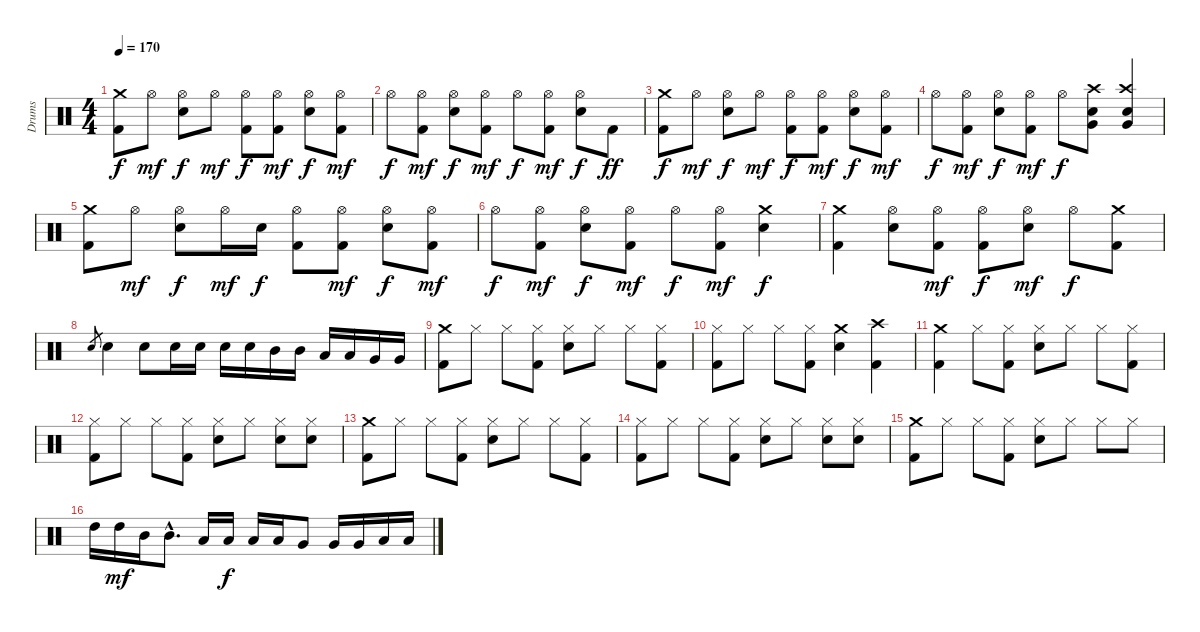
\track ("Drums" "Drums") {instrument percussion}
\staff {score}
\articulation defaults
\ts (4 4)
\tempo 170
\clef neutral
\ks c
("Crash medium (hit)" "Kick (hit) 2").8{dy f} "Hi-Hat (open)".8{dy mf} ("Hi-Hat (open)" "Electric Snare (hit)").8{dy f} "Hi-Hat (open)".8{dy mf} ("Hi-Hat (open)" "Kick (hit) 2").8{dy f} ("Hi-Hat (open)" "Kick (hit) 2").8{dy mf} ("Hi-Hat (open)" "Electric Snare (hit)").8{dy f} ("Hi-Hat (open)" "Kick (hit) 2").8{dy mf} |
"Hi-Hat (open)".8{dy f} ("Hi-Hat (open)" "Kick (hit) 2").8{dy mf} ("Hi-Hat (open)" "Electric Snare (hit)").8{dy f} ("Hi-Hat (open)" "Kick (hit) 2").8{dy mf} "Hi-Hat (open)".8{dy f} ("Hi-Hat (open)" "Kick (hit) 2").8{dy mf} ("Hi-Hat (open)" "Electric Snare (hit)").8{dy f} "Kick (hit) 2".8{dy ff} |
("Crash medium (hit)" "Kick (hit) 2").8{dy f} "Hi-Hat (open)".8{dy mf} ("Hi-Hat (open)" "Electric Snare (hit)").8{dy f} "Hi-Hat (open)".8{dy mf} ("Hi-Hat (open)" "Kick (hit) 2").8{dy f} ("Hi-Hat (open)" "Kick (hit) 2").8{dy mf} ("Hi-Hat (open)" "Electric Snare (hit)").8{dy f} ("Hi-Hat (open)" "Kick (hit) 2").8{dy mf} |
"Hi-Hat (open)".8{dy f} ("Hi-Hat (open)" "Kick (hit) 2").8{dy mf} ("Hi-Hat (open)" "Electric Snare (hit)").8{dy f} ("Hi-Hat (open)" "Kick (hit) 2").8{dy mf} "Hi-Hat (open)".8{dy f} ("Crash high (hit)" "Very Low Tom (hit)" "Electric Snare (hit)").8 ("Crash high (hit)" "Very Low Tom (hit)" "Electric Snare (hit)").4 |
("Crash medium (hit)" "Kick (hit) 2").8 "Hi-Hat (open)".8{dy mf} ("Hi-Hat (open)" "Electric Snare (hit)").8{dy f} "Hi-Hat (open)".16{dy mf} "Electric Snare (hit)".16{dy f} ("Hi-Hat (open)" "Kick (hit) 2").8 ("Hi-Hat (open)" "Kick (hit) 2").8{dy mf} ("Hi-Hat (open)" "Electric Snare (hit)").8{dy f} ("Hi-Hat (open)" "Kick (hit) 2").8{dy mf} |
"Hi-Hat (open)".8{dy f} ("Hi-Hat (open)" "Kick (hit) 2").8{dy mf} ("Hi-Hat (open)" "Electric Snare (hit)").8{dy f} ("Hi-Hat (open)" "Kick (hit) 2").8{dy mf} "Hi-Hat (open)".8{dy f} ("Hi-Hat (open)" "Kick (hit) 2").8{dy mf} ("Crash medium (hit)" "Electric Snare (hit)").4{dy f} |
("Crash medium (hit)" "Kick (hit) 2").4 ("Hi-Hat (open)" "Electric Snare (hit)").8 ("Hi-Hat (open)" "Kick (hit) 2").8{dy mf} ("Hi-Hat (open)" "Kick (hit) 2").8{dy f} ("Hi-Hat (open)" "Electric Snare (hit)").8{dy mf} "Hi-Hat (open)".8{dy f} ("Crash medium (hit)" "Kick (hit) 2").8 |
"Electric Snare (hit)".8{gr} "Electric Snare (hit)".4 "Electric Snare (hit)".8 "Electric Snare (hit)".16 "Electric Snare (hit)".16 "Electric Snare (hit)".16 "Electric Snare (hit)".16 "Mid Tom (hit)".16 "Mid Tom (hit)".16 "Low Tom (hit)".16 "Low Tom (hit)".16 "Very Low Tom (hit)".16 "Very Low Tom (hit)".16 |
("Crash medium (hit)" "Kick (hit) 2").8 "Hi-Hat (closed)".8 "Hi-Hat (closed)".8 ("Hi-Hat (closed)" "Kick (hit) 2").8 ("Hi-Hat (closed)" "Electric Snare (hit)").8 "Hi-Hat (closed)".8 "Hi-Hat (closed)".8 ("Hi-Hat (closed)" "Kick (hit) 2").8 |
("Hi-Hat (closed)" "Kick (hit) 2").8 "Hi-Hat (closed)".8 "Hi-Hat (closed)".8 ("Hi-Hat (closed)" "Kick (hit) 2").8 ("Crash medium (hit)" "Electric Snare (hit)").4 ("Crash high (hit)" "Kick (hit) 2").4 |
("Crash medium (hit)" "Kick (hit) 2").4 "Hi-Hat (closed)".8 ("Hi-Hat (closed)" "Kick (hit) 2").8 ("Hi-Hat (closed)" "Electric Snare (hit)").8 "Hi-Hat (closed)".8 "Hi-Hat (closed)".8 ("Hi-Hat (closed)" "Kick (hit) 2").8 |
("Hi-Hat (closed)" "Kick (hit) 2").8 "Hi-Hat (closed)".8 "Hi-Hat (closed)".8 ("Hi-Hat (closed)" "Kick (hit) 2").8 ("Hi-Hat (closed)" "Electric Snare (hit)").8 "Hi-Hat (closed)".8 ("Hi-Hat (closed)" "Electric Snare (hit)").8 ("Hi-Hat (closed)" "Electric Snare (hit)").8 |
("Crash medium (hit)" "Kick (hit) 2").8 "Hi-Hat (closed)".8 "Hi-Hat (closed)".8 ("Hi-Hat (closed)" "Kick (hit) 2").8 ("Hi-Hat (closed)" "Electric Snare (hit)").8 "Hi-Hat (closed)".8 "Hi-Hat (closed)".8 ("Hi-Hat (closed)" "Kick (hit) 2").8 |
("Hi-Hat (closed)" "Kick (hit) 2").8 "Hi-Hat (closed)".8 "Hi-Hat (closed)".8 ("Hi-Hat (closed)" "Kick (hit) 2").8 ("Hi-Hat (closed)" "Electric Snare (hit)").8 "Hi-Hat (closed)".8 ("Hi-Hat (closed)" "Electric Snare (hit)").8 ("Hi-Hat (closed)" "Electric Snare (hit)").8 |
("Crash medium (hit)" "Kick (hit) 2").8 "Hi-Hat (closed)".8 "Hi-Hat (closed)".8 ("Hi-Hat (closed)" "Kick (hit) 2").8 ("Hi-Hat (closed)" "Electric Snare (hit)").8 "Hi-Hat (closed)".8 "Hi-Hat (closed)".8 "Hi-Hat (closed)".8 |
"High Tom (hit)".16 "High Tom (hit)".16{dy mf} "Mid Tom (hit)".16 "Mid Tom (hit)"{hac}.8{d} "Low Tom (hit)".16 "Low Tom (hit)".16{dy f} "Low Tom (hit)".16 "Low Tom (hit)".16 "Very Low Tom (hit)".8 "Very Low Tom (hit)".16 "Very Low Tom (hit)".16 "Low Floor Tom (hit)".16 "Low Floor Tom (hit)".16
